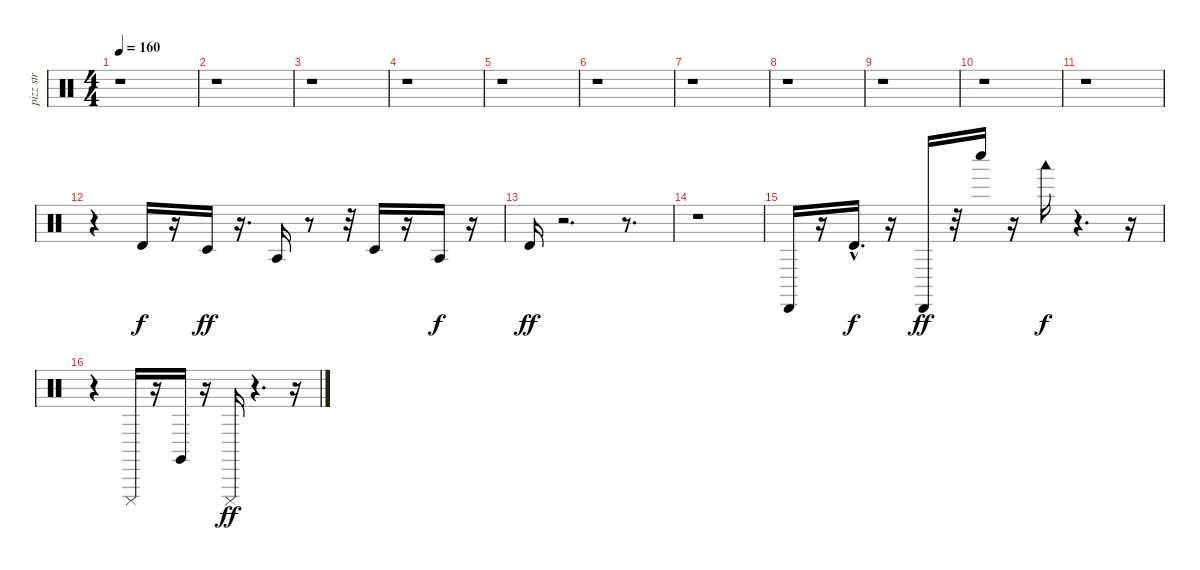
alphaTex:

\track ("pizz str" "pizz str") {instrument percussion}
\staff {score}
\articulation defaults
\ts (4 4)
\tempo 160
\clef neutral
\ks c
r.1{dy f} |
r.1 |
r.1 |
r.1 |
r.1 |
r.1 |
r.1 |
r.1 |
r.1 |
r.1 |
r.1 |
r.4 "Timbale high (hit)".16 r.16 "Timbale low (hit)".16{dy ff} r.16{d} "Agogo tow (hit)".16 r.8 r.32 "Timbale low (hit)".16 r.16 "Agogo tow (hit)".16{dy f} r.16 |
"Timbale high (hit)".16{dy ff} r.2{d} r.8{d} |
r.1 |
"Cabasa (hit)".16 r.16 "Timbale high (hit)"{hac}.16{d dy f} r.16 "Cabasa (hit)".16{dy ff} r.32 "Whistle low (hit)".16 r.16 "Woodblock low (hit)".16{dy f} r.4{d} r.16 |
r.4 "Cuica (mute)".16 r.16 "Claves (hit)".16 r.16 "Cuica (mute)".16{dy ff} r.4{d} r.16
